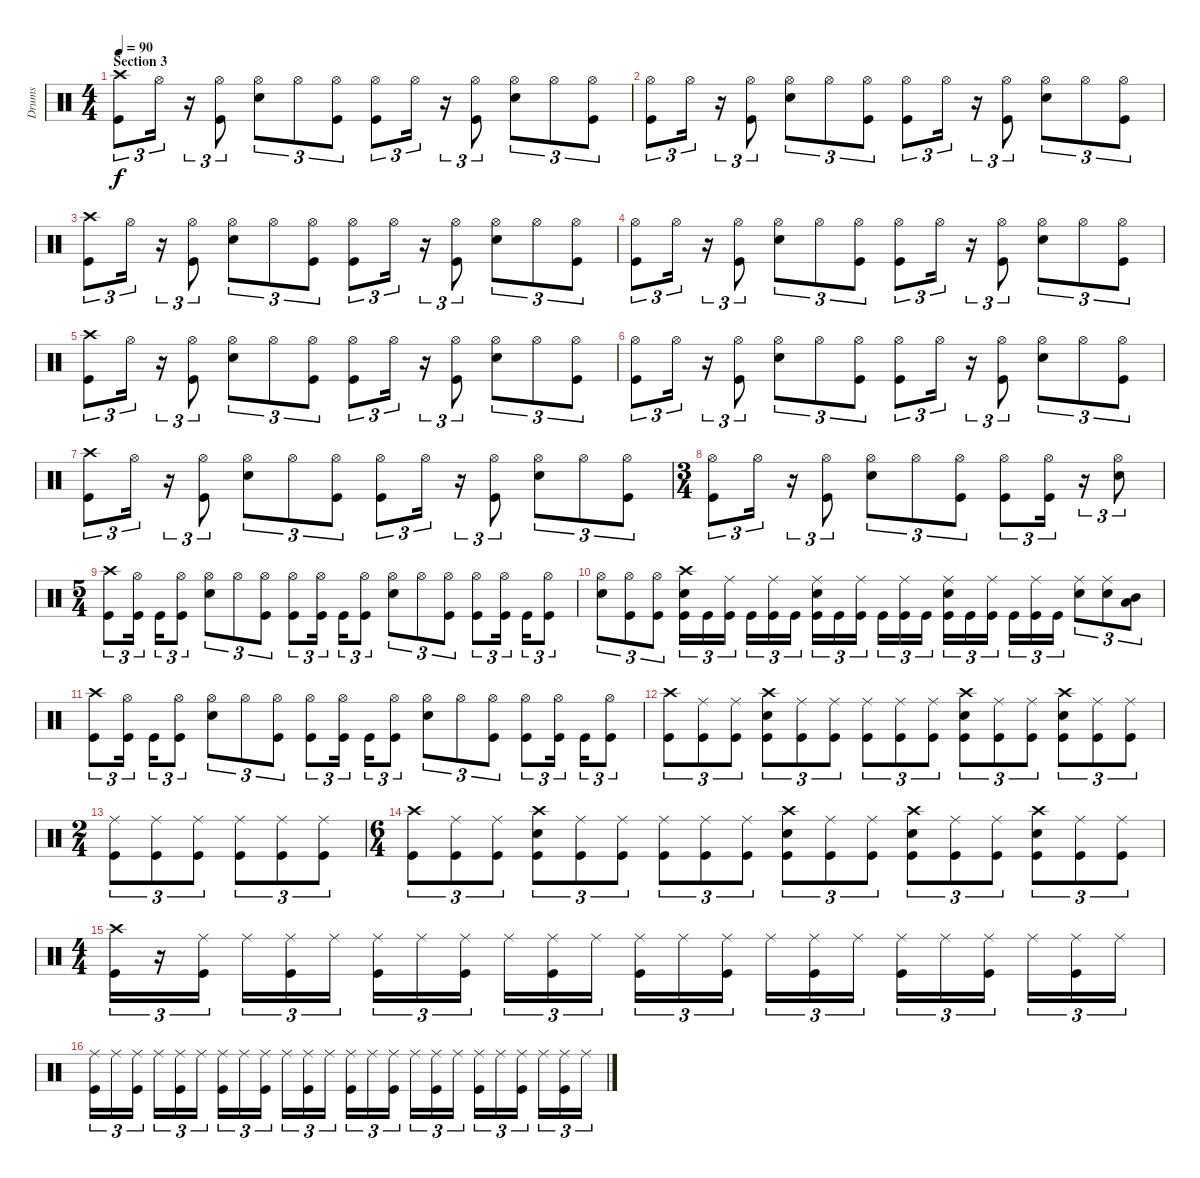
\track ("Drums" "Drums") {instrument percussion}
\staff {score}
\articulation defaults
\ts (4 4)
\section ("" "Section 3")
\tempo 90
\clef neutral
\ks c
("Crash high (hit)" "Kick (hit)").8{tu (3 2) dy f} "Hi-Hat (open)".16{tu (3 2)} r.16{tu (3 2)} ("Hi-Hat (open)" "Kick (hit)").8{tu (3 2)} ("Hi-Hat (open)" "Electric Snare (hit)").8{tu (3 2)} "Hi-Hat (open)".8{tu (3 2)} ("Hi-Hat (open)" "Kick (hit)").8{tu (3 2)} ("Hi-Hat (open)" "Kick (hit)").8{tu (3 2)} "Hi-Hat (open)".16{tu (3 2)} r.16{tu (3 2)} ("Hi-Hat (open)" "Kick (hit)").8{tu (3 2)} ("Hi-Hat (open)" "Electric Snare (hit)").8{tu (3 2)} "Hi-Hat (open)".8{tu (3 2)} ("Hi-Hat (open)" "Kick (hit)").8{tu (3 2)} |
("Hi-Hat (open)" "Kick (hit)").8{tu (3 2)} "Hi-Hat (open)".16{tu (3 2)} r.16{tu (3 2)} ("Hi-Hat (open)" "Kick (hit)").8{tu (3 2)} ("Hi-Hat (open)" "Electric Snare (hit)").8{tu (3 2)} "Hi-Hat (open)".8{tu (3 2)} ("Hi-Hat (open)" "Kick (hit)").8{tu (3 2)} ("Hi-Hat (open)" "Kick (hit)").8{tu (3 2)} "Hi-Hat (open)".16{tu (3 2)} r.16{tu (3 2)} ("Hi-Hat (open)" "Kick (hit)").8{tu (3 2)} ("Hi-Hat (open)" "Electric Snare (hit)").8{tu (3 2)} "Hi-Hat (open)".8{tu (3 2)} ("Hi-Hat (open)" "Kick (hit)").8{tu (3 2)} |
("Crash high (hit)" "Kick (hit)").8{tu (3 2)} "Hi-Hat (open)".16{tu (3 2)} r.16{tu (3 2)} ("Hi-Hat (open)" "Kick (hit)").8{tu (3 2)} ("Hi-Hat (open)" "Electric Snare (hit)").8{tu (3 2)} "Hi-Hat (open)".8{tu (3 2)} ("Hi-Hat (open)" "Kick (hit)").8{tu (3 2)} ("Hi-Hat (open)" "Kick (hit)").8{tu (3 2)} "Hi-Hat (open)".16{tu (3 2)} r.16{tu (3 2)} ("Hi-Hat (open)" "Kick (hit)").8{tu (3 2)} ("Hi-Hat (open)" "Electric Snare (hit)").8{tu (3 2)} "Hi-Hat (open)".8{tu (3 2)} ("Hi-Hat (open)" "Kick (hit)").8{tu (3 2)} |
("Hi-Hat (open)" "Kick (hit)").8{tu (3 2)} "Hi-Hat (open)".16{tu (3 2)} r.16{tu (3 2)} ("Hi-Hat (open)" "Kick (hit)").8{tu (3 2)} ("Hi-Hat (open)" "Electric Snare (hit)").8{tu (3 2)} "Hi-Hat (open)".8{tu (3 2)} ("Hi-Hat (open)" "Kick (hit)").8{tu (3 2)} ("Hi-Hat (open)" "Kick (hit)").8{tu (3 2)} "Hi-Hat (open)".16{tu (3 2)} r.16{tu (3 2)} ("Hi-Hat (open)" "Kick (hit)").8{tu (3 2)} ("Hi-Hat (open)" "Electric Snare (hit)").8{tu (3 2)} "Hi-Hat (open)".8{tu (3 2)} ("Hi-Hat (open)" "Kick (hit)").8{tu (3 2)} |
("Crash high (hit)" "Kick (hit)").8{tu (3 2)} "Hi-Hat (open)".16{tu (3 2)} r.16{tu (3 2)} ("Hi-Hat (open)" "Kick (hit)").8{tu (3 2)} ("Hi-Hat (open)" "Electric Snare (hit)").8{tu (3 2)} "Hi-Hat (open)".8{tu (3 2)} ("Hi-Hat (open)" "Kick (hit)").8{tu (3 2)} ("Hi-Hat (open)" "Kick (hit)").8{tu (3 2)} "Hi-Hat (open)".16{tu (3 2)} r.16{tu (3 2)} ("Hi-Hat (open)" "Kick (hit)").8{tu (3 2)} ("Hi-Hat (open)" "Electric Snare (hit)").8{tu (3 2)} "Hi-Hat (open)".8{tu (3 2)} ("Hi-Hat (open)" "Kick (hit)").8{tu (3 2)} |
("Hi-Hat (open)" "Kick (hit)").8{tu (3 2)} "Hi-Hat (open)".16{tu (3 2)} r.16{tu (3 2)} ("Hi-Hat (open)" "Kick (hit)").8{tu (3 2)} ("Hi-Hat (open)" "Electric Snare (hit)").8{tu (3 2)} "Hi-Hat (open)".8{tu (3 2)} ("Hi-Hat (open)" "Kick (hit)").8{tu (3 2)} ("Hi-Hat (open)" "Kick (hit)").8{tu (3 2)} "Hi-Hat (open)".16{tu (3 2)} r.16{tu (3 2)} ("Hi-Hat (open)" "Kick (hit)").8{tu (3 2)} ("Hi-Hat (open)" "Electric Snare (hit)").8{tu (3 2)} "Hi-Hat (open)".8{tu (3 2)} ("Hi-Hat (open)" "Kick (hit)").8{tu (3 2)} |
("Crash high (hit)" "Kick (hit)").8{tu (3 2)} "Hi-Hat (open)".16{tu (3 2)} r.16{tu (3 2)} ("Hi-Hat (open)" "Kick (hit)").8{tu (3 2)} ("Hi-Hat (open)" "Electric Snare (hit)").8{tu (3 2)} "Hi-Hat (open)".8{tu (3 2)} ("Hi-Hat (open)" "Kick (hit)").8{tu (3 2)} ("Hi-Hat (open)" "Kick (hit)").8{tu (3 2)} "Hi-Hat (open)".16{tu (3 2)} r.16{tu (3 2)} ("Hi-Hat (open)" "Kick (hit)").8{tu (3 2)} ("Hi-Hat (open)" "Electric Snare (hit)").8{tu (3 2)} "Hi-Hat (open)".8{tu (3 2)} ("Hi-Hat (open)" "Kick (hit)").8{tu (3 2)} |
\ts (3 4)
("Hi-Hat (open)" "Kick (hit)").8{tu (3 2)} "Hi-Hat (open)".16{tu (3 2)} r.16{tu (3 2)} ("Hi-Hat (open)" "Kick (hit)").8{tu (3 2)} ("Hi-Hat (open)" "Electric Snare (hit)").8{tu (3 2)} "Hi-Hat (open)".8{tu (3 2)} ("Hi-Hat (open)" "Kick (hit)").8{tu (3 2)} ("Hi-Hat (open)" "Kick (hit)").8{tu (3 2)} ("Hi-Hat (open)" "Kick (hit)").16{tu (3 2)} r.16{tu (3 2)} ("Hi-Hat (open)" "Electric Snare (hit)").8{tu (3 2)} |
\ts (5 4)
("Crash high (hit)" "Kick (hit)").8{tu (3 2)} ("Hi-Hat (open)" "Kick (hit)").16{tu (3 2)} "Kick (hit)".16{tu (3 2)} ("Hi-Hat (open)" "Kick (hit)").8{tu (3 2)} ("Hi-Hat (open)" "Electric Snare (hit)").8{tu (3 2)} "Hi-Hat (open)".8{tu (3 2)} ("Hi-Hat (open)" "Kick (hit)").8{tu (3 2)} ("Hi-Hat (open)" "Kick (hit)").8{tu (3 2)} ("Hi-Hat (open)" "Kick (hit)").16{tu (3 2)} "Kick (hit)".16{tu (3 2)} ("Hi-Hat (open)" "Kick (hit)").8{tu (3 2)} ("Hi-Hat (open)" "Electric Snare (hit)").8{tu (3 2)} "Hi-Hat (open)".8{tu (3 2)} ("Hi-Hat (open)" "Kick (hit)").8{tu (3 2)} ("Hi-Hat (open)" "Kick (hit)").8{tu (3 2)} ("Hi-Hat (open)" "Kick (hit)").16{tu (3 2)} "Kick (hit)".16{tu (3 2)} ("Hi-Hat (open)" "Kick (hit)").8{tu (3 2)} |
("Hi-Hat (open)" "Electric Snare (hit)").8{tu (3 2)} ("Hi-Hat (open)" "Kick (hit)").8{tu (3 2)} ("Hi-Hat (open)" "Kick (hit)").8{tu (3 2)} ("Crash high (hit)" "Electric Snare (hit)" "Kick (hit)").16{tu (3 2)} "Kick (hit)".16{tu (3 2)} ("Ride (middle)" "Kick (hit)").16{tu (3 2)} "Kick (hit)".16{tu (3 2)} ("Ride (middle)" "Kick (hit)").16{tu (3 2)} "Kick (hit)".16{tu (3 2)} ("Ride (middle)" "Electric Snare (hit)" "Kick (hit)").16{tu (3 2)} "Kick (hit)".16{tu (3 2)} ("Ride (middle)" "Kick (hit)").16{tu (3 2)} "Kick (hit)".16{tu (3 2)} ("Ride (middle)" "Kick (hit)").16{tu (3 2)} "Kick (hit)".16{tu (3 2)} ("Ride (middle)" "Electric Snare (hit)" "Kick (hit)").16{tu (3 2)} "Kick (hit)".16{tu (3 2)} ("Ride (middle)" "Kick (hit)").16{tu (3 2)} "Kick (hit)".16{tu (3 2)} ("Ride (middle)" "Kick (hit)").16{tu (3 2)} "Kick (hit)".16{tu (3 2)} ("Ride (middle)" "Electric Snare (hit)").8{tu (3 2)} ("Ride (middle)" "Electric Snare (hit)").8{tu (3 2)} ("Low Tom (hit)" "Mid Tom (hit)").8{tu (3 2)} |
("Crash high (hit)" "Kick (hit)").8{tu (3 2)} ("Hi-Hat (open)" "Kick (hit)").16{tu (3 2)} "Kick (hit)".16{tu (3 2)} ("Hi-Hat (open)" "Kick (hit)").8{tu (3 2)} ("Hi-Hat (open)" "Electric Snare (hit)").8{tu (3 2)} "Hi-Hat (open)".8{tu (3 2)} ("Hi-Hat (open)" "Kick (hit)").8{tu (3 2)} ("Hi-Hat (open)" "Kick (hit)").8{tu (3 2)} ("Hi-Hat (open)" "Kick (hit)").16{tu (3 2)} "Kick (hit)".16{tu (3 2)} ("Hi-Hat (open)" "Kick (hit)").8{tu (3 2)} ("Hi-Hat (open)" "Electric Snare (hit)").8{tu (3 2)} "Hi-Hat (open)".8{tu (3 2)} ("Hi-Hat (open)" "Kick (hit)").8{tu (3 2)} ("Hi-Hat (open)" "Kick (hit)").8{tu (3 2)} ("Hi-Hat (open)" "Kick (hit)").16{tu (3 2)} "Kick (hit)".16{tu (3 2)} ("Hi-Hat (open)" "Kick (hit)").8{tu (3 2)} |
("Crash high (hit)" "Kick (hit)").8{tu (3 2)} ("Ride (middle)" "Kick (hit)").8{tu (3 2)} ("Ride (middle)" "Kick (hit)").8{tu (3 2)} ("Crash high (hit)" "Electric Snare (hit)" "Kick (hit)").8{tu (3 2)} ("Ride (middle)" "Kick (hit)").8{tu (3 2)} ("Ride (middle)" "Kick (hit)").8{tu (3 2)} ("Ride (middle)" "Kick (hit)").8{tu (3 2)} ("Ride (middle)" "Kick (hit)").8{tu (3 2)} ("Ride (middle)" "Kick (hit)").8{tu (3 2)} ("Crash high (hit)" "Electric Snare (hit)" "Kick (hit)").8{tu (3 2)} ("Ride (middle)" "Kick (hit)").8{tu (3 2)} ("Ride (middle)" "Kick (hit)").8{tu (3 2)} ("Crash high (hit)" "Electric Snare (hit)" "Kick (hit)").8{tu (3 2)} ("Ride (middle)" "Kick (hit)").8{tu (3 2)} ("Ride (middle)" "Kick (hit)").8{tu (3 2)} |
\ts (2 4)
("Ride (middle)" "Kick (hit)").8{tu (3 2)} ("Ride (middle)" "Kick (hit)").8{tu (3 2)} ("Ride (middle)" "Kick (hit)").8{tu (3 2)} ("Ride (middle)" "Kick (hit)").8{tu (3 2)} ("Ride (middle)" "Kick (hit)").8{tu (3 2)} ("Ride (middle)" "Kick (hit)").8{tu (3 2)} |
\ts (6 4)
("Crash high (hit)" "Kick (hit)").8{tu (3 2)} ("Ride (middle)" "Kick (hit)").8{tu (3 2)} ("Ride (middle)" "Kick (hit)").8{tu (3 2)} ("Crash high (hit)" "Electric Snare (hit)" "Kick (hit)").8{tu (3 2)} ("Ride (middle)" "Kick (hit)").8{tu (3 2)} ("Ride (middle)" "Kick (hit)").8{tu (3 2)} ("Ride (middle)" "Kick (hit)").8{tu (3 2)} ("Ride (middle)" "Kick (hit)").8{tu (3 2)} ("Ride (middle)" "Kick (hit)").8{tu (3 2)} ("Crash high (hit)" "Electric Snare (hit)" "Kick (hit)").8{tu (3 2)} ("Ride (middle)" "Kick (hit)").8{tu (3 2)} ("Ride (middle)" "Kick (hit)").8{tu (3 2)} ("Crash high (hit)" "Electric Snare (hit)" "Kick (hit)").8{tu (3 2)} ("Ride (middle)" "Kick (hit)").8{tu (3 2)} ("Ride (middle)" "Kick (hit)").8{tu (3 2)} ("Crash high (hit)" "Electric Snare (hit)" "Kick (hit)").8{tu (3 2)} ("Ride (middle)" "Kick (hit)").8{tu (3 2)} ("Ride (middle)" "Kick (hit)").8{tu (3 2)} |
\ts (4 4)
("Crash high (hit)" "Kick (hit)").16{tu (3 2)} r.16{tu (3 2)} ("Ride (middle)" "Kick (hit)").16{tu (3 2)} "Ride (middle)".16{tu (3 2)} ("Ride (middle)" "Kick (hit)").16{tu (3 2)} "Ride (middle)".16{tu (3 2)} ("Ride (middle)" "Kick (hit)").16{tu (3 2)} "Ride (middle)".16{tu (3 2)} ("Ride (middle)" "Kick (hit)").16{tu (3 2)} "Ride (middle)".16{tu (3 2)} ("Ride (middle)" "Kick (hit)").16{tu (3 2)} "Ride (middle)".16{tu (3 2)} ("Ride (middle)" "Kick (hit)").16{tu (3 2)} "Ride (middle)".16{tu (3 2)} ("Ride (middle)" "Kick (hit)").16{tu (3 2)} "Ride (middle)".16{tu (3 2)} ("Ride (middle)" "Kick (hit)").16{tu (3 2)} "Ride (middle)".16{tu (3 2)} ("Ride (middle)" "Kick (hit)").16{tu (3 2)} "Ride (middle)".16{tu (3 2)} ("Ride (middle)" "Kick (hit)").16{tu (3 2)} "Ride (middle)".16{tu (3 2)} ("Ride (middle)" "Kick (hit)").16{tu (3 2)} "Ride (middle)".16{tu (3 2)} |
("Ride (middle)" "Kick (hit)").16{tu (3 2)} "Ride (middle)".16{tu (3 2)} ("Ride (middle)" "Kick (hit)").16{tu (3 2)} "Ride (middle)".16{tu (3 2)} ("Ride (middle)" "Kick (hit)").16{tu (3 2)} "Ride (middle)".16{tu (3 2)} ("Ride (middle)" "Kick (hit)").16{tu (3 2)} "Ride (middle)".16{tu (3 2)} ("Ride (middle)" "Kick (hit)").16{tu (3 2)} "Ride (middle)".16{tu (3 2)} ("Ride (middle)" "Kick (hit)").16{tu (3 2)} "Ride (middle)".16{tu (3 2)} ("Ride (middle)" "Kick (hit)").16{tu (3 2)} "Ride (middle)".16{tu (3 2)} ("Ride (middle)" "Kick (hit)").16{tu (3 2)} "Ride (middle)".16{tu (3 2)} ("Ride (middle)" "Kick (hit)").16{tu (3 2)} "Ride (middle)".16{tu (3 2)} ("Ride (middle)" "Kick (hit)").16{tu (3 2)} "Ride (middle)".16{tu (3 2)} ("Ride (middle)" "Kick (hit)").16{tu (3 2)} "Ride (middle)".16{tu (3 2)} ("Ride (middle)" "Kick (hit)").16{tu (3 2)} "Ride (middle)".16{tu (3 2)}
